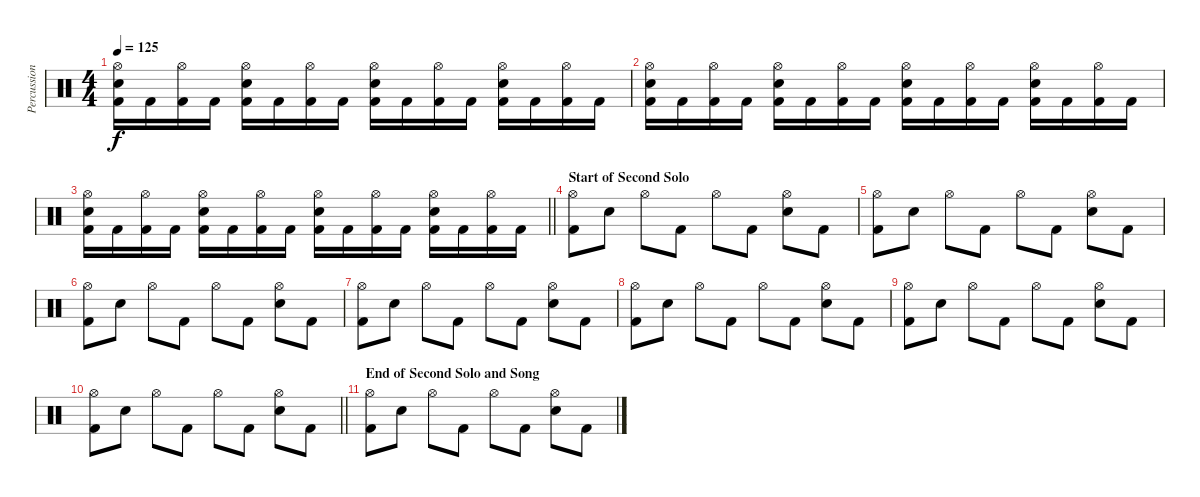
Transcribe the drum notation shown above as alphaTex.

\track ("Percussion" "Percussion") {instrument percussion}
\staff {score}
\articulation defaults
\ts (4 4)
\tempo 125
\clef neutral
\ks c
("Hi-Hat (open)" "Snare (hit) 2" "Kick (hit) 2").16{dy f} "Kick (hit) 2".16 ("Hi-Hat (open)" "Kick (hit) 2").16 "Kick (hit) 2".16 ("Hi-Hat (open)" "Snare (hit) 2" "Kick (hit) 2").16 "Kick (hit) 2".16 ("Hi-Hat (open)" "Kick (hit) 2").16 "Kick (hit) 2".16 ("Hi-Hat (open)" "Snare (hit) 2" "Kick (hit) 2").16 "Kick (hit) 2".16 ("Hi-Hat (open)" "Kick (hit) 2").16 "Kick (hit) 2".16 ("Hi-Hat (open)" "Snare (hit) 2" "Kick (hit) 2").16 "Kick (hit) 2".16 ("Hi-Hat (open)" "Kick (hit) 2").16 "Kick (hit) 2".16 |
("Hi-Hat (open)" "Snare (hit) 2" "Kick (hit) 2").16 "Kick (hit) 2".16 ("Hi-Hat (open)" "Kick (hit) 2").16 "Kick (hit) 2".16 ("Hi-Hat (open)" "Snare (hit) 2" "Kick (hit) 2").16 "Kick (hit) 2".16 ("Hi-Hat (open)" "Kick (hit) 2").16 "Kick (hit) 2".16 ("Hi-Hat (open)" "Snare (hit) 2" "Kick (hit) 2").16 "Kick (hit) 2".16 ("Hi-Hat (open)" "Kick (hit) 2").16 "Kick (hit) 2".16 ("Hi-Hat (open)" "Snare (hit) 2" "Kick (hit) 2").16 "Kick (hit) 2".16 ("Hi-Hat (open)" "Kick (hit) 2").16 "Kick (hit) 2".16 |
\barLineRight lightlight
("Hi-Hat (open)" "Snare (hit) 2" "Kick (hit) 2").16 "Kick (hit) 2".16 ("Hi-Hat (open)" "Kick (hit) 2").16 "Kick (hit) 2".16 ("Hi-Hat (open)" "Snare (hit) 2" "Kick (hit) 2").16 "Kick (hit) 2".16 ("Hi-Hat (open)" "Kick (hit) 2").16 "Kick (hit) 2".16 ("Hi-Hat (open)" "Snare (hit) 2" "Kick (hit) 2").16 "Kick (hit) 2".16 ("Hi-Hat (open)" "Kick (hit) 2").16 "Kick (hit) 2".16 ("Hi-Hat (open)" "Snare (hit) 2" "Kick (hit) 2").16 "Kick (hit) 2".16 ("Hi-Hat (open)" "Kick (hit) 2").16 "Kick (hit) 2".16 |
\section ("" "Start of Second Solo")
("Hi-Hat (open)" "Kick (hit) 2").8 "Snare (hit) 2".8 "Hi-Hat (open)".8 "Kick (hit) 2".8 "Hi-Hat (open)".8 "Kick (hit) 2".8 ("Hi-Hat (open)" "Snare (hit) 2").8 "Kick (hit) 2".8 |
("Hi-Hat (open)" "Kick (hit) 2").8 "Snare (hit) 2".8 "Hi-Hat (open)".8 "Kick (hit) 2".8 "Hi-Hat (open)".8 "Kick (hit) 2".8 ("Hi-Hat (open)" "Snare (hit) 2").8 "Kick (hit) 2".8 |
("Hi-Hat (open)" "Kick (hit) 2").8 "Snare (hit) 2".8 "Hi-Hat (open)".8 "Kick (hit) 2".8 "Hi-Hat (open)".8 "Kick (hit) 2".8 ("Hi-Hat (open)" "Snare (hit) 2").8 "Kick (hit) 2".8 |
("Hi-Hat (open)" "Kick (hit) 2").8 "Snare (hit) 2".8 "Hi-Hat (open)".8 "Kick (hit) 2".8 "Hi-Hat (open)".8 "Kick (hit) 2".8 ("Hi-Hat (open)" "Snare (hit) 2").8 "Kick (hit) 2".8 |
("Hi-Hat (open)" "Kick (hit) 2").8 "Snare (hit) 2".8 "Hi-Hat (open)".8 "Kick (hit) 2".8 "Hi-Hat (open)".8 "Kick (hit) 2".8 ("Hi-Hat (open)" "Snare (hit) 2").8 "Kick (hit) 2".8 |
("Hi-Hat (open)" "Kick (hit) 2").8 "Snare (hit) 2".8 "Hi-Hat (open)".8 "Kick (hit) 2".8 "Hi-Hat (open)".8 "Kick (hit) 2".8 ("Hi-Hat (open)" "Snare (hit) 2").8 "Kick (hit) 2".8 |
\barLineRight lightlight
("Hi-Hat (open)" "Kick (hit) 2").8 "Snare (hit) 2".8 "Hi-Hat (open)".8 "Kick (hit) 2".8 "Hi-Hat (open)".8 "Kick (hit) 2".8 ("Hi-Hat (open)" "Snare (hit) 2").8 "Kick (hit) 2".8 |
\section ("" "End of Second Solo and Song")
("Hi-Hat (open)" "Kick (hit) 2").8 "Snare (hit) 2".8 "Hi-Hat (open)".8 "Kick (hit) 2".8 "Hi-Hat (open)".8 "Kick (hit) 2".8 ("Hi-Hat (open)" "Snare (hit) 2").8 "Kick (hit) 2".8
